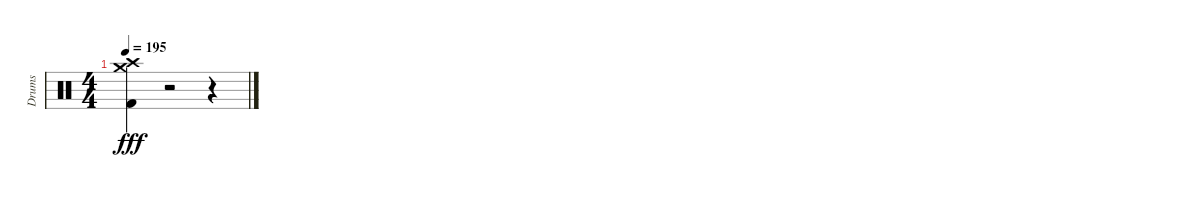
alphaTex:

\track ("Drums" "Drums") {instrument percussion}
\staff {score}
\articulation defaults
\ts (4 4)
\tempo 195
\clef neutral
\ks c
("Kick (hit) 2" "Crash high (hit)" "Crash medium (hit)").4{dy fff} r.2 r.4
